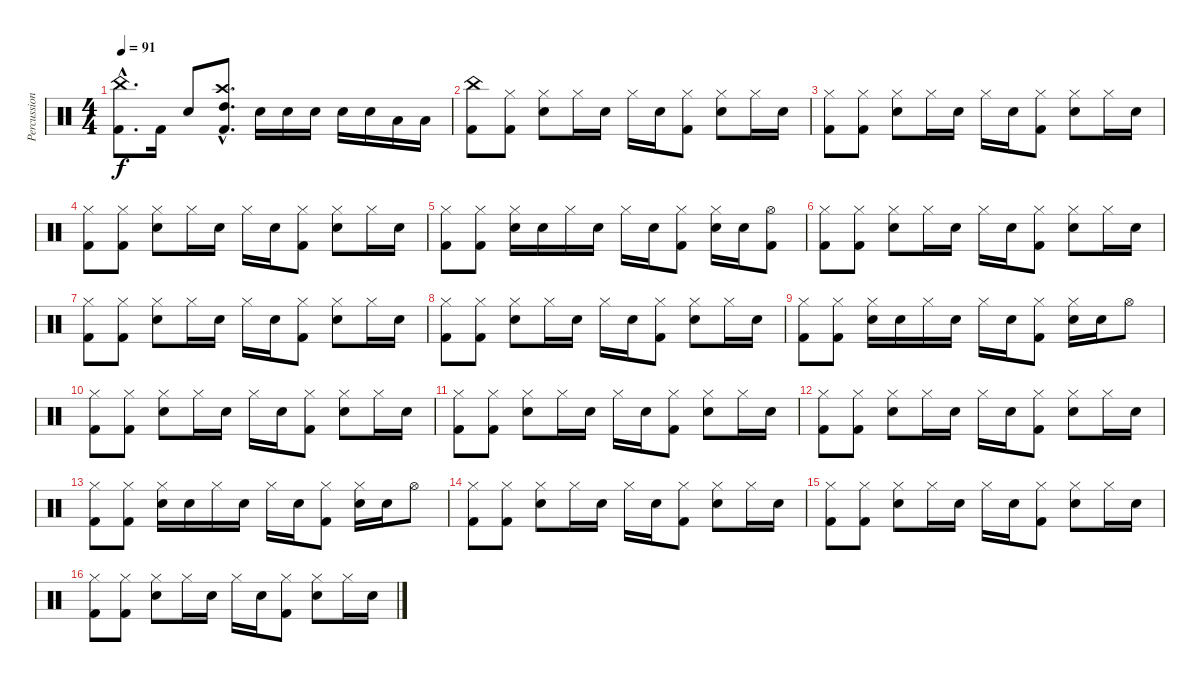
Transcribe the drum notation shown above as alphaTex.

\track ("Percussion" "Percussion") {instrument percussion}
\staff {score}
\articulation defaults
\ts (4 4)
\tempo 91
\clef neutral
\ks c
("China (hit)"{hac} "Kick (hit) 2"{hac}).8{d dy f} "Kick (hit) 2".16 "Electric Snare (hit)".8 ("Kick (hit) 2"{hac} "Crash high (hit)"{hac} "High Tom (hit)"{hac}).8{d} "Electric Snare (hit)".16 "Electric Snare (hit)".16 "Electric Snare (hit)".16 "Electric Snare (hit)".16 "Electric Snare (hit)".16 "Low Tom (hit)".16 "Low Tom (hit)".16 |
("China (hit)" "Kick (hit) 2").8 ("Kick (hit) 2" "Hi-Hat (closed)").8 ("Hi-Hat (closed)" "Electric Snare (hit)").8 "Hi-Hat (closed)".16 "Electric Snare (hit)".16 "Hi-Hat (closed)".16 "Electric Snare (hit)".16 ("Hi-Hat (closed)" "Kick (hit) 2").8 ("Hi-Hat (closed)" "Electric Snare (hit)").8 "Hi-Hat (closed)".16 "Electric Snare (hit)".16 |
("Kick (hit) 2" "Hi-Hat (closed)").8 ("Kick (hit) 2" "Hi-Hat (closed)").8 ("Electric Snare (hit)" "Hi-Hat (closed)").8 "Hi-Hat (closed)".16 "Electric Snare (hit)".16 "Hi-Hat (closed)".16 "Electric Snare (hit)".16 ("Hi-Hat (closed)" "Kick (hit) 2").8 ("Hi-Hat (closed)" "Electric Snare (hit)").8 "Hi-Hat (closed)".16 "Electric Snare (hit)".16 |
("Hi-Hat (closed)" "Kick (hit) 2").8 ("Hi-Hat (closed)" "Kick (hit) 2").8 ("Hi-Hat (closed)" "Electric Snare (hit)").8 "Hi-Hat (closed)".16 "Electric Snare (hit)".16 "Hi-Hat (closed)".16 "Electric Snare (hit)".16 ("Kick (hit) 2" "Hi-Hat (closed)").8 ("Electric Snare (hit)" "Hi-Hat (closed)").8 "Hi-Hat (closed)".16 "Electric Snare (hit)".16 |
("Hi-Hat (closed)" "Kick (hit) 2").8 ("Kick (hit) 2" "Hi-Hat (closed)").8 ("Hi-Hat (closed)" "Electric Snare (hit)").16 "Electric Snare (hit)".16 "Hi-Hat (closed)".16 "Electric Snare (hit)".16 "Hi-Hat (closed)".16 "Electric Snare (hit)".16 ("Kick (hit) 2" "Hi-Hat (closed)").8 ("Hi-Hat (closed)" "Electric Snare (hit)").16 "Electric Snare (hit)".16 ("Kick (hit) 2" "Hi-Hat (open)").8 |
("Hi-Hat (closed)" "Kick (hit) 2").8 ("Hi-Hat (closed)" "Kick (hit) 2").8 ("Hi-Hat (closed)" "Electric Snare (hit)").8 "Hi-Hat (closed)".16 "Electric Snare (hit)".16 "Hi-Hat (closed)".16 "Electric Snare (hit)".16 ("Hi-Hat (closed)" "Kick (hit) 2").8 ("Hi-Hat (closed)" "Electric Snare (hit)").8 "Hi-Hat (closed)".16 "Electric Snare (hit)".16 |
("Kick (hit) 2" "Hi-Hat (closed)").8 ("Kick (hit) 2" "Hi-Hat (closed)").8 ("Electric Snare (hit)" "Hi-Hat (closed)").8 "Hi-Hat (closed)".16 "Electric Snare (hit)".16 "Hi-Hat (closed)".16 "Electric Snare (hit)".16 ("Kick (hit) 2" "Hi-Hat (closed)").8 ("Hi-Hat (closed)" "Electric Snare (hit)").8 "Hi-Hat (closed)".16 "Electric Snare (hit)".16 |
("Hi-Hat (closed)" "Kick (hit) 2").8 ("Hi-Hat (closed)" "Kick (hit) 2").8 ("Hi-Hat (closed)" "Electric Snare (hit)").8 "Hi-Hat (closed)".16 "Electric Snare (hit)".16 "Hi-Hat (closed)".16 "Electric Snare (hit)".16 ("Kick (hit) 2" "Hi-Hat (closed)").8 ("Hi-Hat (closed)" "Electric Snare (hit)").8 "Hi-Hat (closed)".16 "Electric Snare (hit)".16 |
("Kick (hit) 2" "Hi-Hat (closed)").8 ("Kick (hit) 2" "Hi-Hat (closed)").8 ("Electric Snare (hit)" "Hi-Hat (closed)").16 "Electric Snare (hit)".16 "Hi-Hat (closed)".16 "Electric Snare (hit)".16 "Hi-Hat (closed)".16 "Electric Snare (hit)".16 ("Kick (hit) 2" "Hi-Hat (closed)").8 ("Electric Snare (hit)" "Hi-Hat (closed)").16 "Electric Snare (hit)".16 "Hi-Hat (open)".8 |
("Hi-Hat (closed)" "Kick (hit) 2").8 ("Hi-Hat (closed)" "Kick (hit) 2").8 ("Hi-Hat (closed)" "Electric Snare (hit)").8 "Hi-Hat (closed)".16 "Electric Snare (hit)".16 "Hi-Hat (closed)".16 "Electric Snare (hit)".16 ("Kick (hit) 2" "Hi-Hat (closed)").8 ("Electric Snare (hit)" "Hi-Hat (closed)").8 "Hi-Hat (closed)".16 "Electric Snare (hit)".16 |
("Hi-Hat (closed)" "Kick (hit) 2").8 ("Hi-Hat (closed)" "Kick (hit) 2").8 ("Electric Snare (hit)" "Hi-Hat (closed)").8 "Hi-Hat (closed)".16 "Electric Snare (hit)".16 "Hi-Hat (closed)".16 "Electric Snare (hit)".16 ("Kick (hit) 2" "Hi-Hat (closed)").8 ("Hi-Hat (closed)" "Electric Snare (hit)").8 "Hi-Hat (closed)".16 "Electric Snare (hit)".16 |
("Hi-Hat (closed)" "Kick (hit) 2").8 ("Hi-Hat (closed)" "Kick (hit) 2").8 ("Hi-Hat (closed)" "Electric Snare (hit)").8 "Hi-Hat (closed)".16 "Electric Snare (hit)".16 "Hi-Hat (closed)".16 "Electric Snare (hit)".16 ("Kick (hit) 2" "Hi-Hat (closed)").8 ("Hi-Hat (closed)" "Electric Snare (hit)").8 "Hi-Hat (closed)".16 "Electric Snare (hit)".16 |
("Hi-Hat (closed)" "Kick (hit) 2").8 ("Hi-Hat (closed)" "Kick (hit) 2").8 ("Electric Snare (hit)" "Hi-Hat (closed)").16 "Electric Snare (hit)".16 "Hi-Hat (closed)".16 "Electric Snare (hit)".16 "Hi-Hat (closed)".16 "Electric Snare (hit)".16 ("Hi-Hat (closed)" "Kick (hit) 2").8 ("Hi-Hat (closed)" "Electric Snare (hit)").16 "Electric Snare (hit)".16 "Hi-Hat (open)".8 |
("Hi-Hat (closed)" "Kick (hit) 2").8 ("Hi-Hat (closed)" "Kick (hit) 2").8 ("Hi-Hat (closed)" "Electric Snare (hit)").8 "Hi-Hat (closed)".16 "Electric Snare (hit)".16 "Hi-Hat (closed)".16 "Electric Snare (hit)".16 ("Kick (hit) 2" "Hi-Hat (closed)").8 ("Electric Snare (hit)" "Hi-Hat (closed)").8 "Hi-Hat (closed)".16 "Electric Snare (hit)".16 |
("Kick (hit) 2" "Hi-Hat (closed)").8 ("Kick (hit) 2" "Hi-Hat (closed)").8 ("Hi-Hat (closed)" "Electric Snare (hit)").8 "Hi-Hat (closed)".16 "Electric Snare (hit)".16 "Hi-Hat (closed)".16 "Electric Snare (hit)".16 ("Hi-Hat (closed)" "Kick (hit) 2").8 ("Hi-Hat (closed)" "Electric Snare (hit)").8 "Hi-Hat (closed)".16 "Electric Snare (hit)".16 |
("Hi-Hat (closed)" "Kick (hit) 2").8 ("Kick (hit) 2" "Hi-Hat (closed)").8 ("Hi-Hat (closed)" "Electric Snare (hit)").8 "Hi-Hat (closed)".16 "Electric Snare (hit)".16 "Hi-Hat (closed)".16 "Electric Snare (hit)".16 ("Kick (hit) 2" "Hi-Hat (closed)").8 ("Electric Snare (hit)" "Hi-Hat (closed)").8 "Hi-Hat (closed)".16 "Electric Snare (hit)".16
